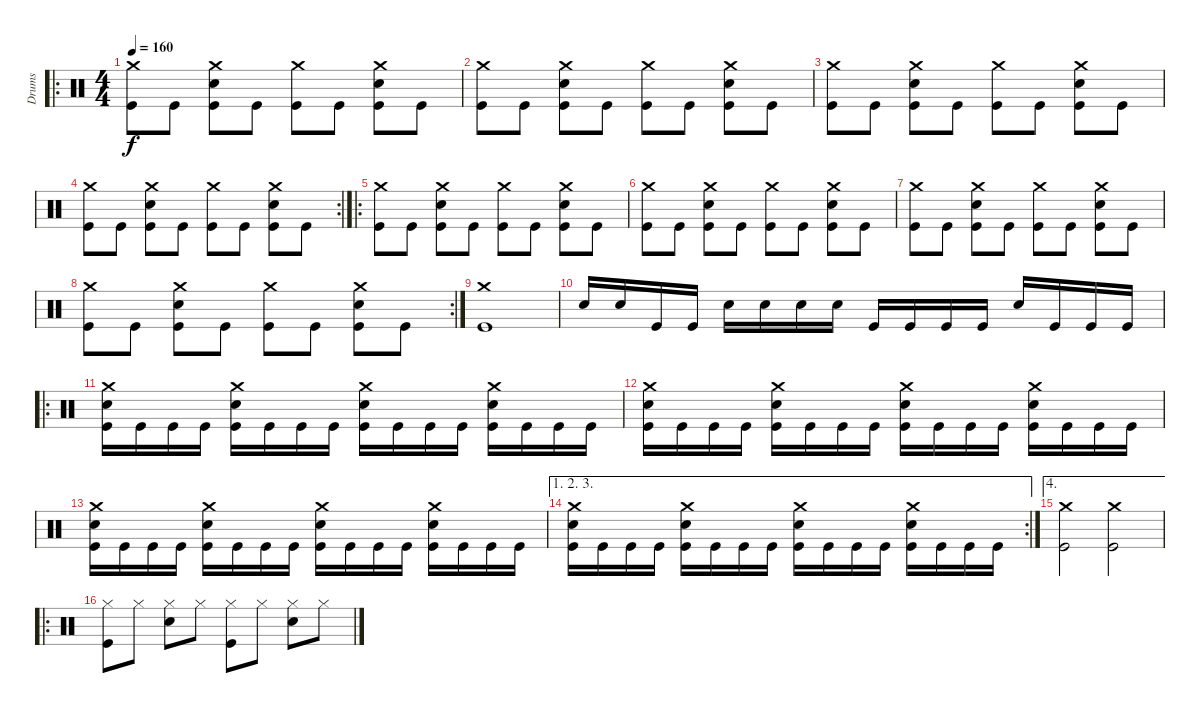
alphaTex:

\track ("Drums" "Drums") {instrument percussion}
\staff {score}
\articulation defaults
\ro
\ts (4 4)
\tempo 160
\clef neutral
\ks c
("Crash medium (hit)" "Kick (hit)").8{dy f} "Kick (hit)".8 ("Crash medium (hit)" "Snare (hit) 2" "Kick (hit)").8 "Kick (hit)".8 ("Crash medium (hit)" "Kick (hit)").8 "Kick (hit)".8 ("Crash medium (hit)" "Snare (hit) 2" "Kick (hit)").8 "Kick (hit)".8 |
("Crash medium (hit)" "Kick (hit)").8 "Kick (hit)".8 ("Crash medium (hit)" "Snare (hit) 2" "Kick (hit)").8 "Kick (hit)".8 ("Crash medium (hit)" "Kick (hit)").8 "Kick (hit)".8 ("Crash medium (hit)" "Snare (hit) 2" "Kick (hit)").8 "Kick (hit)".8 |
("Crash medium (hit)" "Kick (hit)").8 "Kick (hit)".8 ("Crash medium (hit)" "Snare (hit) 2" "Kick (hit)").8 "Kick (hit)".8 ("Crash medium (hit)" "Kick (hit)").8 "Kick (hit)".8 ("Crash medium (hit)" "Snare (hit) 2" "Kick (hit)").8 "Kick (hit)".8 |
\rc 2
("Crash medium (hit)" "Kick (hit)").8 "Kick (hit)".8 ("Crash medium (hit)" "Snare (hit) 2" "Kick (hit)").8 "Kick (hit)".8 ("Crash medium (hit)" "Kick (hit)").8 "Kick (hit)".8 ("Crash medium (hit)" "Snare (hit) 2" "Kick (hit)").8 "Kick (hit)".8 |
\ro
("Crash medium (hit)" "Kick (hit)").8 "Kick (hit)".8 ("Crash medium (hit)" "Snare (hit) 2" "Kick (hit)").8 "Kick (hit)".8 ("Crash medium (hit)" "Kick (hit)").8 "Kick (hit)".8 ("Crash medium (hit)" "Snare (hit) 2" "Kick (hit)").8 "Kick (hit)".8 |
("Crash medium (hit)" "Kick (hit)").8 "Kick (hit)".8 ("Crash medium (hit)" "Snare (hit) 2" "Kick (hit)").8 "Kick (hit)".8 ("Crash medium (hit)" "Kick (hit)").8 "Kick (hit)".8 ("Crash medium (hit)" "Snare (hit) 2" "Kick (hit)").8 "Kick (hit)".8 |
("Crash medium (hit)" "Kick (hit)").8 "Kick (hit)".8 ("Crash medium (hit)" "Snare (hit) 2" "Kick (hit)").8 "Kick (hit)".8 ("Crash medium (hit)" "Kick (hit)").8 "Kick (hit)".8 ("Crash medium (hit)" "Snare (hit) 2" "Kick (hit)").8 "Kick (hit)".8 |
\rc 2
("Crash medium (hit)" "Kick (hit)").8 "Kick (hit)".8 ("Crash medium (hit)" "Snare (hit) 2" "Kick (hit)").8 "Kick (hit)".8 ("Crash medium (hit)" "Kick (hit)").8 "Kick (hit)".8 ("Crash medium (hit)" "Snare (hit) 2" "Kick (hit)").8 "Kick (hit)".8 |
("Crash medium (hit)" "Kick (hit)").1 |
"Snare (hit) 2".16 "Snare (hit) 2".16 "Kick (hit)".16 "Kick (hit)".16 "Snare (hit) 2".16 "Snare (hit) 2".16 "Snare (hit) 2".16 "Snare (hit) 2".16 "Kick (hit)".16 "Kick (hit)".16 "Kick (hit)".16 "Kick (hit)".16 "Snare (hit) 2".16 "Kick (hit)".16 "Kick (hit)".16 "Kick (hit)".16 |
\ro
("Crash medium (hit)" "Snare (hit) 2" "Kick (hit)").16 "Kick (hit)".16 "Kick (hit)".16 "Kick (hit)".16 ("Crash medium (hit)" "Snare (hit) 2" "Kick (hit)").16 "Kick (hit)".16 "Kick (hit)".16 "Kick (hit)".16 ("Crash medium (hit)" "Snare (hit) 2" "Kick (hit)").16 "Kick (hit)".16 "Kick (hit)".16 "Kick (hit)".16 ("Crash medium (hit)" "Snare (hit) 2" "Kick (hit)").16 "Kick (hit)".16 "Kick (hit)".16 "Kick (hit)".16 |
("Crash medium (hit)" "Snare (hit) 2" "Kick (hit)").16 "Kick (hit)".16 "Kick (hit)".16 "Kick (hit)".16 ("Crash medium (hit)" "Snare (hit) 2" "Kick (hit)").16 "Kick (hit)".16 "Kick (hit)".16 "Kick (hit)".16 ("Crash medium (hit)" "Snare (hit) 2" "Kick (hit)").16 "Kick (hit)".16 "Kick (hit)".16 "Kick (hit)".16 ("Crash medium (hit)" "Snare (hit) 2" "Kick (hit)").16 "Kick (hit)".16 "Kick (hit)".16 "Kick (hit)".16 |
("Crash medium (hit)" "Snare (hit) 2" "Kick (hit)").16 "Kick (hit)".16 "Kick (hit)".16 "Kick (hit)".16 ("Crash medium (hit)" "Snare (hit) 2" "Kick (hit)").16 "Kick (hit)".16 "Kick (hit)".16 "Kick (hit)".16 ("Crash medium (hit)" "Snare (hit) 2" "Kick (hit)").16 "Kick (hit)".16 "Kick (hit)".16 "Kick (hit)".16 ("Crash medium (hit)" "Snare (hit) 2" "Kick (hit)").16 "Kick (hit)".16 "Kick (hit)".16 "Kick (hit)".16 |
\ae (1 2 3)
\rc 2
("Crash medium (hit)" "Snare (hit) 2" "Kick (hit)").16 "Kick (hit)".16 "Kick (hit)".16 "Kick (hit)".16 ("Crash medium (hit)" "Snare (hit) 2" "Kick (hit)").16 "Kick (hit)".16 "Kick (hit)".16 "Kick (hit)".16 ("Crash medium (hit)" "Snare (hit) 2" "Kick (hit)").16 "Kick (hit)".16 "Kick (hit)".16 "Kick (hit)".16 ("Crash medium (hit)" "Snare (hit) 2" "Kick (hit)").16 "Kick (hit)".16 "Kick (hit)".16 "Kick (hit)".16 |
\ae 4
("Crash medium (hit)" "Kick (hit)").2 ("Crash medium (hit)" "Kick (hit)").2 |
\ro
("Hi-Hat (closed)" "Kick (hit)").8 "Hi-Hat (closed)".8 ("Hi-Hat (closed)" "Snare (hit) 2").8 "Hi-Hat (closed)".8 ("Hi-Hat (closed)" "Kick (hit)").8 "Hi-Hat (closed)".8 ("Hi-Hat (closed)" "Snare (hit) 2").8 "Hi-Hat (closed)".8
